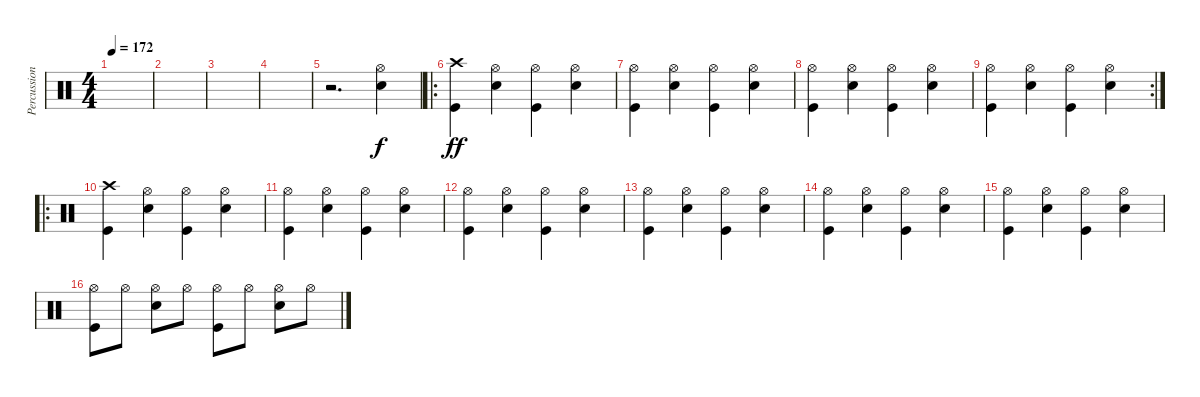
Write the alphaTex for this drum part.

\track ("Percussioni" "Percussion") {instrument percussion}
\staff {score}
\articulation defaults
\ts (4 4)
\tempo 172
\clef neutral
\ks c
|
|
|
|
r.2{d} ("Hi-Hat (open)" "Electric Snare (hit)").4 |
\ro
("Crash high (hit)" "Kick (hit)").4{dy ff} ("Hi-Hat (open)" "Electric Snare (hit)").4 ("Hi-Hat (open)" "Kick (hit)").4 ("Hi-Hat (open)" "Electric Snare (hit)").4 |
("Hi-Hat (open)" "Kick (hit)").4 ("Hi-Hat (open)" "Electric Snare (hit)").4 ("Hi-Hat (open)" "Kick (hit)").4 ("Hi-Hat (open)" "Electric Snare (hit)").4 |
("Hi-Hat (open)" "Kick (hit)").4 ("Hi-Hat (open)" "Electric Snare (hit)").4 ("Hi-Hat (open)" "Kick (hit)").4 ("Hi-Hat (open)" "Electric Snare (hit)").4 |
\rc 2
("Hi-Hat (open)" "Kick (hit)").4 ("Hi-Hat (open)" "Electric Snare (hit)").4 ("Hi-Hat (open)" "Kick (hit)").4 ("Hi-Hat (open)" "Electric Snare (hit)").4 |
\ro
("Crash high (hit)" "Kick (hit)").4 ("Hi-Hat (open)" "Electric Snare (hit)").4 ("Hi-Hat (open)" "Kick (hit)").4 ("Hi-Hat (open)" "Electric Snare (hit)").4 |
("Hi-Hat (open)" "Kick (hit)").4 ("Hi-Hat (open)" "Electric Snare (hit)").4 ("Hi-Hat (open)" "Kick (hit)").4 ("Hi-Hat (open)" "Electric Snare (hit)").4 |
("Hi-Hat (open)" "Kick (hit)").4 ("Hi-Hat (open)" "Electric Snare (hit)").4 ("Hi-Hat (open)" "Kick (hit)").4 ("Hi-Hat (open)" "Electric Snare (hit)").4 |
("Hi-Hat (open)" "Kick (hit)").4 ("Hi-Hat (open)" "Electric Snare (hit)").4 ("Hi-Hat (open)" "Kick (hit)").4 ("Hi-Hat (open)" "Electric Snare (hit)").4 |
("Hi-Hat (open)" "Kick (hit)").4 ("Hi-Hat (open)" "Electric Snare (hit)").4 ("Hi-Hat (open)" "Kick (hit)").4 ("Hi-Hat (open)" "Electric Snare (hit)").4 |
("Hi-Hat (open)" "Kick (hit)").4 ("Hi-Hat (open)" "Electric Snare (hit)").4 ("Hi-Hat (open)" "Kick (hit)").4 ("Hi-Hat (open)" "Electric Snare (hit)").4 |
("Hi-Hat (open)" "Kick (hit)").8 "Hi-Hat (open)".8 ("Hi-Hat (open)" "Electric Snare (hit)").8 "Hi-Hat (open)".8 ("Hi-Hat (open)" "Kick (hit)").8 "Hi-Hat (open)".8 ("Hi-Hat (open)" "Electric Snare (hit)").8 "Hi-Hat (open)".8
